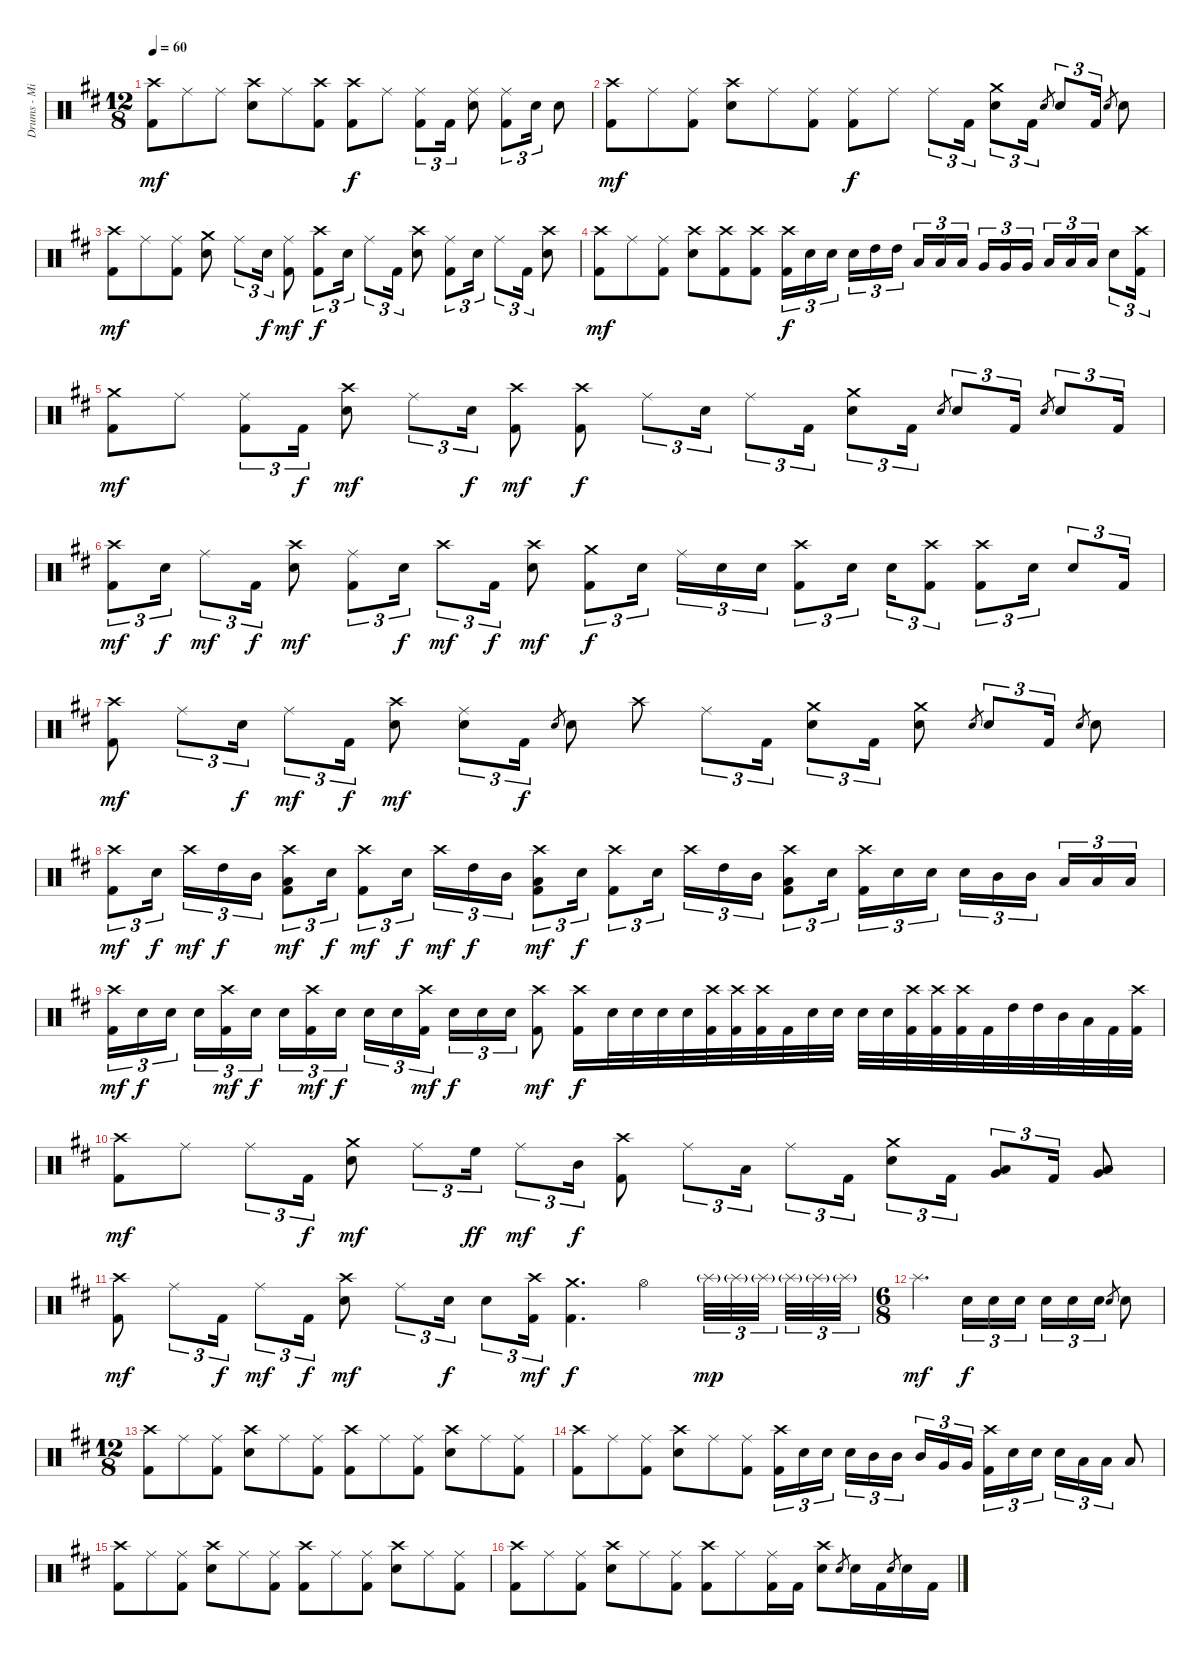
\track ("Drums - Mike Portnoy" "Drums - Mi") {instrument percussion}
\staff {score}
\articulation defaults
\ts (12 8)
\tempo 60
\clef neutral
\ks d
("Crash high (hit)" "Kick (hit) 2").8{dy mf} "Ride (middle)".8 "Ride (middle)".8 ("Crash high (hit)" "Snare (hit) 2").8 "Ride (middle)".8 ("Crash high (hit)" "Kick (hit) 2").8 ("Crash high (hit)" "Kick (hit) 2").8{dy f} "Ride (middle)".8 ("Ride (middle)" "Kick (hit) 2").8{tu (3 2)} "Kick (hit) 2".16{tu (3 2)} ("Ride (middle)" "Snare (hit) 2").8 ("Ride (middle)" "Kick (hit) 2").8{tu (3 2)} "Snare (hit) 2".16{tu (3 2)} "Snare (hit) 2".8 |
("Crash high (hit)" "Kick (hit) 2").8{dy mf} "Ride (middle)".8 ("Ride (middle)" "Kick (hit) 2").8 ("Crash high (hit)" "Snare (hit) 2").8 "Ride (middle)".8 ("Ride (middle)" "Kick (hit) 2").8 ("Ride (middle)" "Kick (hit) 2").8{dy f} "Ride (middle)".8 "Ride (middle)".8{tu (3 2)} "Kick (hit) 2".16{tu (3 2)} ("Crash medium (hit)" "Snare (hit) 2").8{tu (3 2)} "Kick (hit) 2".16{tu (3 2)} "Snare (hit) 2".8{gr} "Snare (hit) 2".8{tu (3 2)} "Kick (hit) 2".16{tu (3 2)} "Snare (hit) 2".8{gr} "Snare (hit) 2".8 |
("Crash high (hit)" "Kick (hit) 2").8{dy mf} "Ride (middle)".8 ("Ride (middle)" "Kick (hit) 2").8 ("Crash medium (hit)" "Snare (hit) 2").8 "Ride (middle)".8{tu (3 2)} "Snare (hit) 2".16{tu (3 2) dy f} ("Ride (middle)" "Kick (hit) 2").8{dy mf} ("Crash high (hit)" "Kick (hit) 2").8{tu (3 2) dy f} "Snare (hit) 2".16{tu (3 2)} "Ride (middle)".8{tu (3 2)} "Kick (hit) 2".16{tu (3 2)} ("Crash high (hit)" "Snare (hit) 2").8 ("Ride (middle)" "Kick (hit) 2").8{tu (3 2)} "Snare (hit) 2".16{tu (3 2)} "Ride (middle)".8{tu (3 2)} "Kick (hit) 2".16{tu (3 2)} ("Crash high (hit)" "Snare (hit) 2").8 |
("Crash high (hit)" "Kick (hit) 2").8{dy mf} "Ride (middle)".8 ("Ride (middle)" "Kick (hit) 2").8 ("Crash high (hit)" "Snare (hit) 2").8 ("Crash high (hit)" "Kick (hit) 2").8 ("Crash high (hit)" "Kick (hit) 2").8 ("Crash high (hit)" "Kick (hit) 2").16{tu (3 2) dy f} "Snare (hit) 2".16{tu (3 2)} "Snare (hit) 2".16{tu (3 2) beam splitsecondary} "Snare (hit) 2".16{tu (3 2)} "High Tom (hit)".16{tu (3 2)} "High Tom (hit)".16{tu (3 2) beam splitsecondary} "Low Tom (hit)".16{tu (3 2)} "Low Tom (hit)".16{tu (3 2)} "Low Tom (hit)".16{tu (3 2)} "Very Low Tom (hit)".16{tu (3 2)} "Very Low Tom (hit)".16{tu (3 2)} "Very Low Tom (hit)".16{tu (3 2) beam splitsecondary} "Low Floor Tom (hit)".16{tu (3 2)} "Low Floor Tom (hit)".16{tu (3 2)} "Low Floor Tom (hit)".16{tu (3 2)} "Snare (hit) 2".8{tu (3 2)} ("Crash high (hit)" "Kick (hit) 2").16{tu (3 2)} |
("Crash medium (hit)" "Kick (hit) 2").8{dy mf} "Ride (middle)".8 ("Ride (middle)" "Kick (hit) 2").8{tu (3 2)} "Kick (hit) 2".16{tu (3 2) dy f} ("Crash high (hit)" "Snare (hit) 2").8{dy mf} "Ride (middle)".8{tu (3 2)} "Snare (hit) 2".16{tu (3 2) dy f} ("Crash high (hit)" "Kick (hit) 2").8{dy mf} ("Crash high (hit)" "Kick (hit) 2").8{dy f} "Ride (middle)".8{tu (3 2)} "Snare (hit) 2".16{tu (3 2)} "Ride (middle)".8{tu (3 2)} "Kick (hit) 2".16{tu (3 2)} ("Crash medium (hit)" "Snare (hit) 2").8{tu (3 2)} "Kick (hit) 2".16{tu (3 2)} "Snare (hit) 2".8{gr} "Snare (hit) 2".8{tu (3 2)} "Kick (hit) 2".16{tu (3 2)} "Snare (hit) 2".8{gr} "Snare (hit) 2".8{tu (3 2)} "Kick (hit) 2".16{tu (3 2)} |
("Crash high (hit)" "Kick (hit) 2").8{tu (3 2) dy mf} "Snare (hit) 2".16{tu (3 2) dy f} "Ride (middle)".8{tu (3 2) dy mf} "Kick (hit) 2".16{tu (3 2) dy f} ("Crash high (hit)" "Snare (hit) 2").8{dy mf} ("Ride (middle)" "Kick (hit) 2").8{tu (3 2)} "Snare (hit) 2".16{tu (3 2) dy f} "Crash high (hit)".8{tu (3 2) dy mf} "Kick (hit) 2".16{tu (3 2) dy f} ("Crash high (hit)" "Snare (hit) 2").8{dy mf} ("Crash medium (hit)" "Kick (hit) 2").8{tu (3 2) dy f} "Snare (hit) 2".16{tu (3 2) beam splitsecondary} "Ride (middle)".16{tu (3 2)} "Snare (hit) 2".16{tu (3 2)} "Snare (hit) 2".16{tu (3 2)} ("Crash high (hit)" "Kick (hit) 2").8{tu (3 2)} "Snare (hit) 2".16{tu (3 2)} "Snare (hit) 2".16{tu (3 2)} ("Crash high (hit)" "Kick (hit) 2").8{tu (3 2)} ("Crash high (hit)" "Kick (hit) 2").8{tu (3 2)} "Snare (hit) 2".16{tu (3 2)} "Snare (hit) 2".8{tu (3 2)} "Kick (hit) 2".16{tu (3 2)} |
("Crash high (hit)" "Kick (hit) 2").8{dy mf} "Ride (middle)".8{tu (3 2)} "Snare (hit) 2".16{tu (3 2) dy f} "Ride (middle)".8{tu (3 2) dy mf} "Kick (hit) 2".16{tu (3 2) dy f} ("Crash high (hit)" "Snare (hit) 2").8{dy mf} ("Ride (middle)" "Snare (hit) 2").8{tu (3 2)} "Kick (hit) 2".16{tu (3 2) dy f} "Snare (hit) 2".8{gr} "Snare (hit) 2".8 "Crash high (hit)".8 "Ride (middle)".8{tu (3 2)} "Kick (hit) 2".16{tu (3 2)} ("Crash medium (hit)" "Snare (hit) 2").8{tu (3 2)} "Kick (hit) 2".16{tu (3 2)} ("Crash medium (hit)" "Snare (hit) 2").8 "Snare (hit) 2".8{gr} "Snare (hit) 2".8{tu (3 2)} "Kick (hit) 2".16{tu (3 2)} "Snare (hit) 2".8{gr} "Snare (hit) 2".8 |
("Crash high (hit)" "Kick (hit) 2").8{tu (3 2) dy mf} "Snare (hit) 2".16{tu (3 2) dy f beam splitsecondary} "Crash high (hit)".16{tu (3 2) dy mf} "High Tom (hit)".16{tu (3 2) dy f} "Mid Tom (hit)".16{tu (3 2)} ("Crash high (hit)" "Low Tom (hit)" "Kick (hit) 2").8{tu (3 2) dy mf} "Snare (hit) 2".16{tu (3 2) dy f} ("Crash high (hit)" "Kick (hit) 2").8{tu (3 2) dy mf} "Snare (hit) 2".16{tu (3 2) dy f beam splitsecondary} "Crash high (hit)".16{tu (3 2) dy mf} "High Tom (hit)".16{tu (3 2) dy f} "Mid Tom (hit)".16{tu (3 2)} ("Crash high (hit)" "Low Tom (hit)" "Kick (hit) 2").8{tu (3 2) dy mf} "Snare (hit) 2".16{tu (3 2) dy f} ("Crash high (hit)" "Kick (hit) 2").8{tu (3 2)} "Snare (hit) 2".16{tu (3 2) beam splitsecondary} "Crash high (hit)".16{tu (3 2)} "High Tom (hit)".16{tu (3 2)} "Mid Tom (hit)".16{tu (3 2)} ("Crash high (hit)" "Low Tom (hit)" "Kick (hit) 2").8{tu (3 2)} "Snare (hit) 2".16{tu (3 2)} ("Crash high (hit)" "Kick (hit) 2").16{tu (3 2)} "Snare (hit) 2".16{tu (3 2)} "Snare (hit) 2".16{tu (3 2) beam splitsecondary} "Snare (hit) 2".16{tu (3 2)} "Mid Tom (hit)".16{tu (3 2)} "Mid Tom (hit)".16{tu (3 2) beam splitsecondary} "Low Tom (hit)".16{tu (3 2)} "Low Tom (hit)".16{tu (3 2)} "Low Tom (hit)".16{tu (3 2)} |
("Crash high (hit)" "Kick (hit) 2").16{tu (3 2) dy mf} "Snare (hit) 2".16{tu (3 2) dy f} "Snare (hit) 2".16{tu (3 2) beam splitsecondary} "Snare (hit) 2".16{tu (3 2)} ("Crash high (hit)" "Kick (hit) 2").16{tu (3 2) dy mf} "Snare (hit) 2".16{tu (3 2) dy f beam splitsecondary} "Snare (hit) 2".16{tu (3 2)} ("Crash high (hit)" "Kick (hit) 2").16{tu (3 2) dy mf} "Snare (hit) 2".16{tu (3 2) dy f} "Snare (hit) 2".16{tu (3 2)} "Snare (hit) 2".16{tu (3 2)} ("Crash high (hit)" "Kick (hit) 2").16{tu (3 2) dy mf beam splitsecondary} "Snare (hit) 2".16{tu (3 2) dy f} "Snare (hit) 2".16{tu (3 2)} "Snare (hit) 2".16{tu (3 2)} ("Crash high (hit)" "Kick (hit) 2").8{dy mf} ("Crash high (hit)" "Kick (hit) 2").16{dy f} "Snare (hit) 2".32 "Snare (hit) 2".32 "Snare (hit) 2".32 "Snare (hit) 2".32 ("Crash high (hit)" "Kick (hit) 2").32 ("Crash high (hit)" "Kick (hit) 2").32 ("Crash high (hit)" "Kick (hit) 2").32 "Kick (hit) 2".32 "Snare (hit) 2".32 "Snare (hit) 2".32 "Snare (hit) 2".32 "Snare (hit) 2".32 ("Crash high (hit)" "Kick (hit) 2").32 ("Crash high (hit)" "Kick (hit) 2").32 ("Crash high (hit)" "Kick (hit) 2").32 "Kick (hit) 2".32 "High Tom (hit)".32 "High Tom (hit)".32 "Mid Tom (hit)".32 "Low Tom (hit)".32 "Kick (hit) 2".32 ("Crash high (hit)" "Kick (hit) 2").32 |
("Crash high (hit)" "Kick (hit) 2").8{dy mf} "Ride (middle)".8 "Ride (middle)".8{tu (3 2)} "Kick (hit) 2".16{tu (3 2) dy f} ("Crash medium (hit)" "Snare (hit) 2").8{dy mf} "Ride (middle)".8{tu (3 2)} "High Floor Tom (hit)".16{tu (3 2) dy ff} "Ride (middle)".8{tu (3 2) dy mf} "Mid Tom (hit)".16{tu (3 2) dy f} ("Crash high (hit)" "Kick (hit) 2").8 "Ride (middle)".8{tu (3 2)} "Low Tom (hit)".16{tu (3 2)} "Ride (middle)".8{tu (3 2)} "Kick (hit) 2".16{tu (3 2)} ("Crash medium (hit)" "Snare (hit) 2").8{tu (3 2)} "Kick (hit) 2".16{tu (3 2)} ("Low Tom (hit)" "Very Low Tom (hit)").8{tu (3 2)} "Kick (hit) 2".16{tu (3 2)} ("Low Tom (hit)" "Very Low Tom (hit)").8 |
("Crash high (hit)" "Kick (hit) 2").8{dy mf} "Ride (middle)".8{tu (3 2)} "Kick (hit) 2".16{tu (3 2) dy f} "Ride (middle)".8{tu (3 2) dy mf} "Kick (hit) 2".16{tu (3 2) dy f} ("Crash high (hit)" "Snare (hit) 2").8{dy mf} "Ride (middle)".8{tu (3 2)} "Snare (hit) 2".16{tu (3 2) dy f} "Snare (hit) 2".8{tu (3 2)} ("Crash high (hit)" "Kick (hit) 2").16{tu (3 2) dy mf} ("Crash medium (hit)" "Kick (hit) 2").4{d dy f} "Hi-Hat (open)".4 "Splash (hit)"{g}.32{tu (3 2) dy mp} "Splash (hit)"{g}.32{tu (3 2)} "Splash (hit)"{g}.32{tu (3 2) beam splitsecondary} "Splash (hit)"{g}.32{tu (3 2)} "Splash (hit)"{g}.32{tu (3 2)} "Splash (hit)"{g}.32{tu (3 2)} |
\ts (6 8)
"Splash (hit)".4{d dy mf} "Snare (hit) 2".16{tu (3 2) dy f} "Snare (hit) 2".16{tu (3 2)} "Snare (hit) 2".16{tu (3 2) beam splitsecondary} "Snare (hit) 2".16{tu (3 2)} "Snare (hit) 2".16{tu (3 2)} "Snare (hit) 2".16{tu (3 2)} "Snare (hit) 2".8{gr} "Snare (hit) 2".8 |
\ts (12 8)
("Crash high (hit)" "Kick (hit) 2").8 "Ride (middle)".8 ("Ride (middle)" "Kick (hit) 2").8 ("Crash high (hit)" "Snare (hit) 2").8 "Ride (middle)".8 ("Ride (middle)" "Kick (hit) 2").8 ("Crash high (hit)" "Kick (hit) 2").8 "Ride (middle)".8 ("Ride (middle)" "Kick (hit) 2").8 ("Crash high (hit)" "Snare (hit) 2").8 "Ride (middle)".8 ("Ride (middle)" "Kick (hit) 2").8 |
("Crash high (hit)" "Kick (hit) 2").8 "Ride (middle)".8 ("Ride (middle)" "Kick (hit) 2").8 ("Crash high (hit)" "Snare (hit) 2").8 "Ride (middle)".8 ("Ride (middle)" "Kick (hit) 2").8 ("Crash high (hit)" "Kick (hit) 2").16{tu (3 2)} "Snare (hit) 2".16{tu (3 2)} "Snare (hit) 2".16{tu (3 2) beam splitsecondary} "Snare (hit) 2".16{tu (3 2)} "Mid Tom (hit)".16{tu (3 2)} "Mid Tom (hit)".16{tu (3 2) beam splitsecondary} "Mid Tom (hit)".16{tu (3 2)} "Very Low Tom (hit)".16{tu (3 2)} "Very Low Tom (hit)".16{tu (3 2)} ("Crash high (hit)" "Kick (hit) 2").16{tu (3 2)} "Snare (hit) 2".16{tu (3 2)} "Snare (hit) 2".16{tu (3 2) beam splitsecondary} "Snare (hit) 2".16{tu (3 2)} "Low Tom (hit)".16{tu (3 2)} "Low Tom (hit)".16{tu (3 2)} "Low Tom (hit)".8 |
("Crash high (hit)" "Kick (hit) 2").8 "Ride (middle)".8 ("Ride (middle)" "Kick (hit) 2").8 ("Crash high (hit)" "Snare (hit) 2").8 "Ride (middle)".8 ("Ride (middle)" "Kick (hit) 2").8 ("Crash high (hit)" "Kick (hit) 2").8 "Ride (middle)".8 ("Ride (middle)" "Kick (hit) 2").8 ("Crash high (hit)" "Snare (hit) 2").8 "Ride (middle)".8 ("Ride (middle)" "Kick (hit) 2").8 |
("Crash high (hit)" "Kick (hit) 2").8 "Ride (middle)".8 ("Ride (middle)" "Kick (hit) 2").8 ("Crash high (hit)" "Snare (hit) 2").8 "Ride (middle)".8 ("Ride (middle)" "Kick (hit) 2").8 ("Crash high (hit)" "Kick (hit) 2").8 "Ride (middle)".8 ("Ride (middle)" "Kick (hit) 2").16 "Kick (hit) 2".16 ("Crash high (hit)" "Snare (hit) 2").8 "Snare (hit) 2".8{gr} "Snare (hit) 2".16 "Kick (hit) 2".16 "Snare (hit) 2".8{gr} "Snare (hit) 2".16 "Kick (hit) 2".16
